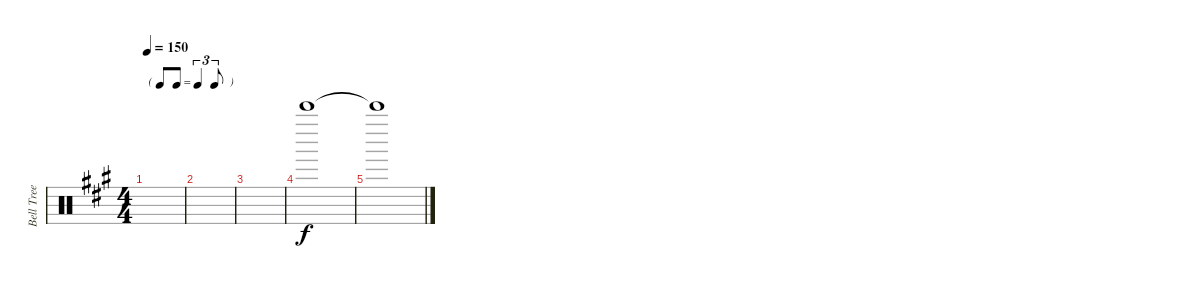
\track ("Bell Tree" "Bell Tree") {instrument percussion}
\staff {score}
\articulation defaults
\ts (4 4)
\tf triplet8th
\tempo 150
\clef neutral
\ks a
|
|
|
"Bell Tree (hit)".1 |
"Bell Tree (hit)"{t}.1
